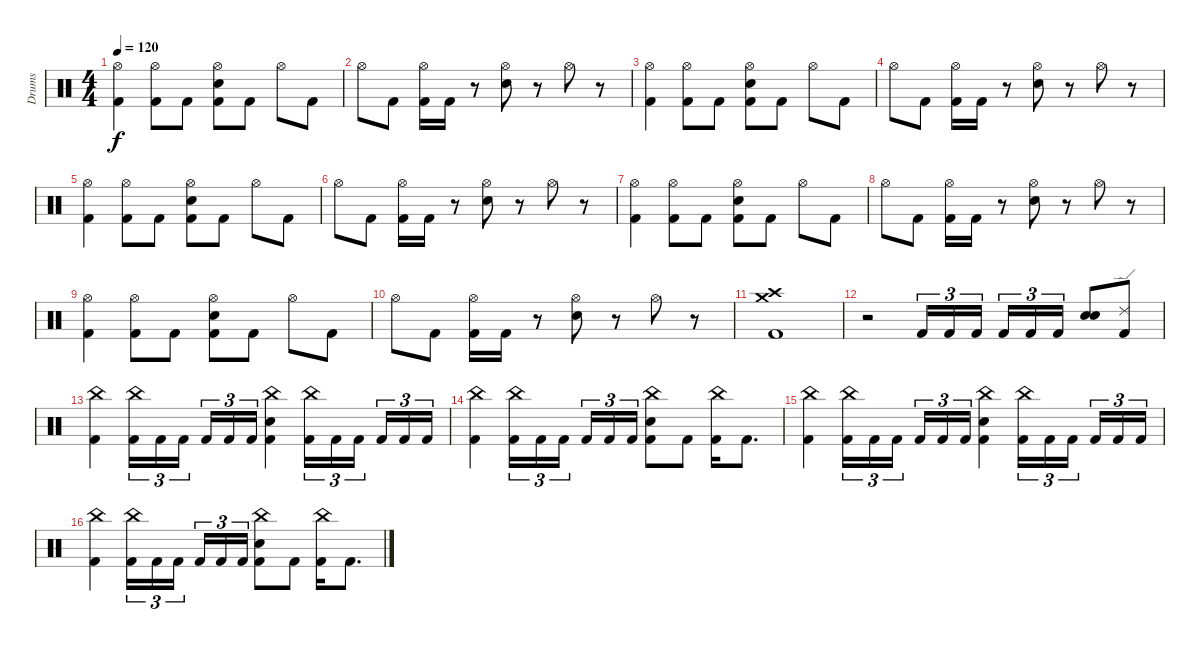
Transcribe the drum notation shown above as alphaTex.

\track ("Drums" "Drums") {instrument percussion}
\staff {score}
\articulation defaults
\ts (4 4)
\tempo 120
\clef neutral
\ks c
("Hi-Hat (open)" "Kick (hit) 2").4{dy f} ("Hi-Hat (open)" "Kick (hit) 2").8 "Kick (hit) 2".8 ("Hi-Hat (open)" "Electric Snare (hit)" "Kick (hit) 2").8 "Kick (hit) 2".8 "Hi-Hat (open)".8 "Kick (hit) 2".8 |
"Hi-Hat (open)".8 "Kick (hit) 2".8 ("Hi-Hat (open)" "Kick (hit) 2").16 "Kick (hit) 2".16 r.8 ("Hi-Hat (open)" "Electric Snare (hit)").8 r.8 "Hi-Hat (open)".8 r.8 |
("Hi-Hat (open)" "Kick (hit) 2").4 ("Hi-Hat (open)" "Kick (hit) 2").8 "Kick (hit) 2".8 ("Hi-Hat (open)" "Electric Snare (hit)" "Kick (hit) 2").8 "Kick (hit) 2".8 "Hi-Hat (open)".8 "Kick (hit) 2".8 |
"Hi-Hat (open)".8 "Kick (hit) 2".8 ("Hi-Hat (open)" "Kick (hit) 2").16 "Kick (hit) 2".16 r.8 ("Hi-Hat (open)" "Electric Snare (hit)").8 r.8 "Hi-Hat (open)".8 r.8 |
("Hi-Hat (open)" "Kick (hit) 2").4 ("Hi-Hat (open)" "Kick (hit) 2").8 "Kick (hit) 2".8 ("Hi-Hat (open)" "Electric Snare (hit)" "Kick (hit) 2").8 "Kick (hit) 2".8 "Hi-Hat (open)".8 "Kick (hit) 2".8 |
"Hi-Hat (open)".8 "Kick (hit) 2".8 ("Hi-Hat (open)" "Kick (hit) 2").16 "Kick (hit) 2".16 r.8 ("Hi-Hat (open)" "Electric Snare (hit)").8 r.8 "Hi-Hat (open)".8 r.8 |
("Hi-Hat (open)" "Kick (hit) 2").4 ("Hi-Hat (open)" "Kick (hit) 2").8 "Kick (hit) 2".8 ("Hi-Hat (open)" "Electric Snare (hit)" "Kick (hit) 2").8 "Kick (hit) 2".8 "Hi-Hat (open)".8 "Kick (hit) 2".8 |
"Hi-Hat (open)".8 "Kick (hit) 2".8 ("Hi-Hat (open)" "Kick (hit) 2").16 "Kick (hit) 2".16 r.8 ("Hi-Hat (open)" "Electric Snare (hit)").8 r.8 "Hi-Hat (open)".8 r.8 |
("Hi-Hat (open)" "Kick (hit) 2").4 ("Hi-Hat (open)" "Kick (hit) 2").8 "Kick (hit) 2".8 ("Hi-Hat (open)" "Electric Snare (hit)" "Kick (hit) 2").8 "Kick (hit) 2".8 "Hi-Hat (open)".8 "Kick (hit) 2".8 |
"Hi-Hat (open)".8 "Kick (hit) 2".8 ("Hi-Hat (open)" "Kick (hit) 2").16 "Kick (hit) 2".16 r.8 ("Hi-Hat (open)" "Electric Snare (hit)").8 r.8 "Hi-Hat (open)".8 r.8 |
("Crash high (hit)" "Crash medium (hit)" "Kick (hit) 2").1 |
r.2 "Kick (hit) 2".16{tu (3 2)} "Kick (hit) 2".16{tu (3 2)} "Kick (hit) 2".16{tu (3 2) beam splitsecondary} "Kick (hit) 2".16{tu (3 2)} "Kick (hit) 2".16{tu (3 2)} "Kick (hit) 2".16{tu (3 2)} ("Electric Snare (hit)" "Electric Snare (hit)").8{bd 480} ("Ride (edge) 2" "Kick (hit) 2").8 |
("China (hit)" "Kick (hit) 2").4 ("China (hit)" "Kick (hit) 2").16{tu (3 2)} "Kick (hit) 2".16{tu (3 2)} "Kick (hit) 2".16{tu (3 2) beam splitsecondary} "Kick (hit) 2".16{tu (3 2)} "Kick (hit) 2".16{tu (3 2)} "Kick (hit) 2".16{tu (3 2)} ("China (hit)" "Electric Snare (hit)" "Kick (hit) 2").4 ("China (hit)" "Kick (hit) 2").16{tu (3 2)} "Kick (hit) 2".16{tu (3 2)} "Kick (hit) 2".16{tu (3 2) beam splitsecondary} "Kick (hit) 2".16{tu (3 2)} "Kick (hit) 2".16{tu (3 2)} "Kick (hit) 2".16{tu (3 2)} |
("China (hit)" "Kick (hit) 2").4 ("China (hit)" "Kick (hit) 2").16{tu (3 2)} "Kick (hit) 2".16{tu (3 2)} "Kick (hit) 2".16{tu (3 2) beam splitsecondary} "Kick (hit) 2".16{tu (3 2)} "Kick (hit) 2".16{tu (3 2)} "Kick (hit) 2".16{tu (3 2)} ("China (hit)" "Electric Snare (hit)" "Kick (hit) 2").8 "Kick (hit) 2".8 ("China (hit)" "Kick (hit) 2").16 "Kick (hit) 2".8{d} |
("China (hit)" "Kick (hit) 2").4 ("China (hit)" "Kick (hit) 2").16{tu (3 2)} "Kick (hit) 2".16{tu (3 2)} "Kick (hit) 2".16{tu (3 2) beam splitsecondary} "Kick (hit) 2".16{tu (3 2)} "Kick (hit) 2".16{tu (3 2)} "Kick (hit) 2".16{tu (3 2)} ("China (hit)" "Electric Snare (hit)" "Kick (hit) 2").4 ("China (hit)" "Kick (hit) 2").16{tu (3 2)} "Kick (hit) 2".16{tu (3 2)} "Kick (hit) 2".16{tu (3 2) beam splitsecondary} "Kick (hit) 2".16{tu (3 2)} "Kick (hit) 2".16{tu (3 2)} "Kick (hit) 2".16{tu (3 2)} |
("China (hit)" "Kick (hit) 2").4 ("China (hit)" "Kick (hit) 2").16{tu (3 2)} "Kick (hit) 2".16{tu (3 2)} "Kick (hit) 2".16{tu (3 2) beam splitsecondary} "Kick (hit) 2".16{tu (3 2)} "Kick (hit) 2".16{tu (3 2)} "Kick (hit) 2".16{tu (3 2)} ("China (hit)" "Electric Snare (hit)" "Kick (hit) 2").8 "Kick (hit) 2".8 ("China (hit)" "Kick (hit) 2").16 "Kick (hit) 2".8{d}
